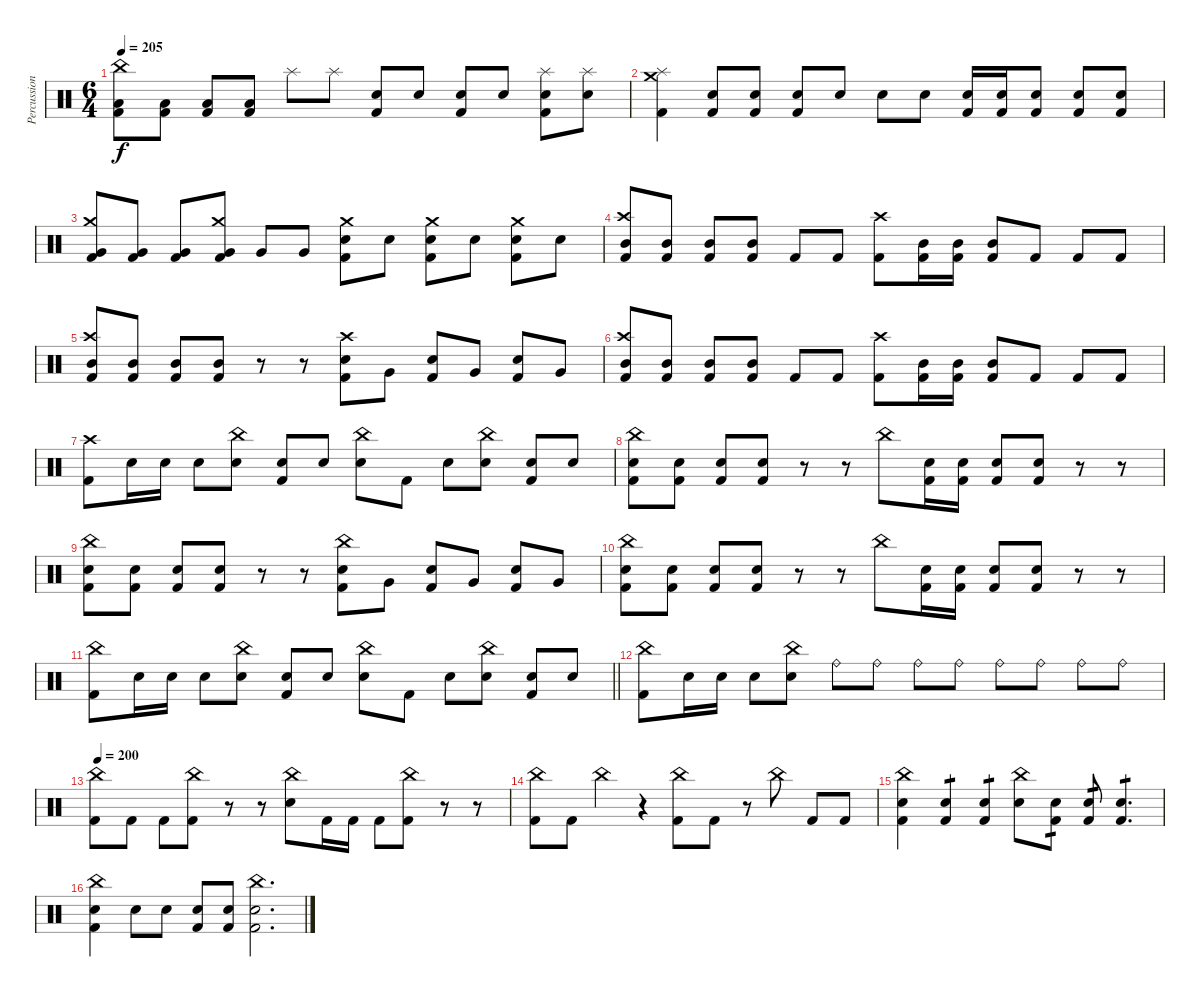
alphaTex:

\track ("Percussion" "Percussion") {instrument percussion}
\staff {score}
\articulation defaults
\ts (6 4)
\tempo 205
\clef neutral
\ks c
("China (hit)" "Low Floor Tom (hit)" "Kick (hit) 2").8{dy f} ("Low Floor Tom (hit)" "Kick (hit) 2").8 ("Low Floor Tom (hit)" "Kick (hit) 2").8 ("Low Floor Tom (hit)" "Kick (hit) 2").8 "Splash (hit)".8 "Splash (hit)".8 ("Electric Snare (hit)" "Kick (hit) 2").8 "Electric Snare (hit)".8 ("Electric Snare (hit)" "Kick (hit) 2").8 "Electric Snare (hit)".8 ("Splash (hit)" "Electric Snare (hit)" "Kick (hit) 2").8 ("Splash (hit)" "Electric Snare (hit)").8 |
("Crash medium (hit)" "Splash (hit)" "Kick (hit) 2").4 ("Electric Snare (hit)" "Kick (hit) 2").8 ("Electric Snare (hit)" "Kick (hit) 2").8 ("Electric Snare (hit)" "Kick (hit) 2").8 "Electric Snare (hit)".8 "Electric Snare (hit)".8 "Electric Snare (hit)".8 ("Electric Snare (hit)" "Kick (hit) 2").16 ("Electric Snare (hit)" "Kick (hit) 2").16 ("Electric Snare (hit)" "Kick (hit) 2").8 ("Electric Snare (hit)" "Kick (hit) 2").8 ("Electric Snare (hit)" "Kick (hit) 2").8 |
("Crash medium (hit)" "Very Low Tom (hit)" "Kick (hit) 2").8 ("Very Low Tom (hit)" "Kick (hit) 2").8 ("Very Low Tom (hit)" "Kick (hit) 2").8 ("Crash medium (hit)" "Very Low Tom (hit)" "Kick (hit) 2").8 "Very Low Tom (hit)".8 "Very Low Tom (hit)".8 ("Crash medium (hit)" "Electric Snare (hit)" "Kick (hit) 2").8 "Electric Snare (hit)".8 ("Crash medium (hit)" "Electric Snare (hit)" "Kick (hit) 2").8 "Electric Snare (hit)".8 ("Crash medium (hit)" "Electric Snare (hit)" "Kick (hit) 2").8 "Electric Snare (hit)".8 |
("Crash high (hit)" "Mid Tom (hit)" "Kick (hit) 2").8 ("Mid Tom (hit)" "Kick (hit) 2").8 ("Mid Tom (hit)" "Kick (hit) 2").8 ("Mid Tom (hit)" "Kick (hit) 2").8 "Kick (hit) 2".8 "Kick (hit) 2".8 ("Crash high (hit)" "Kick (hit) 2").8 ("Mid Tom (hit)" "Kick (hit) 2").16 ("Mid Tom (hit)" "Kick (hit) 2").16 ("Mid Tom (hit)" "Kick (hit) 2").8 "Kick (hit) 2".8 "Kick (hit) 2".8 "Kick (hit) 2".8 |
("Crash high (hit)" "Mid Tom (hit)" "Kick (hit) 2").8 ("Mid Tom (hit)" "Kick (hit) 2").8 ("Mid Tom (hit)" "Kick (hit) 2").8 ("Mid Tom (hit)" "Kick (hit) 2").8 r.8 r.8 ("Crash high (hit)" "Electric Snare (hit)" "Kick (hit) 2").8 "Very Low Tom (hit)".8 ("Electric Snare (hit)" "Kick (hit) 2").8 "Very Low Tom (hit)".8 ("Electric Snare (hit)" "Kick (hit) 2").8 "Very Low Tom (hit)".8 |
("Crash high (hit)" "Mid Tom (hit)" "Kick (hit) 2").8 ("Mid Tom (hit)" "Kick (hit) 2").8 ("Mid Tom (hit)" "Kick (hit) 2").8 ("Mid Tom (hit)" "Kick (hit) 2").8 "Kick (hit) 2".8 "Kick (hit) 2".8 ("Crash high (hit)" "Kick (hit) 2").8 ("Mid Tom (hit)" "Kick (hit) 2").16 ("Mid Tom (hit)" "Kick (hit) 2").16 ("Mid Tom (hit)" "Kick (hit) 2").8 "Kick (hit) 2".8 "Kick (hit) 2".8 "Kick (hit) 2".8 |
("Crash high (hit)" "Kick (hit) 2").8 "Electric Snare (hit)".16 "Electric Snare (hit)".16{volume 15} "Electric Snare (hit)".8 ("China (hit)" "Electric Snare (hit)").8 ("Electric Snare (hit)" "Kick (hit) 2").8 "Electric Snare (hit)".8 ("China (hit)" "Electric Snare (hit)").8 "Kick (hit) 2".8 "Electric Snare (hit)".8 ("China (hit)" "Electric Snare (hit)").8 ("Electric Snare (hit)" "Kick (hit) 2").8 "Electric Snare (hit)".8 |
("China (hit)" "Electric Snare (hit)" "Kick (hit) 2").8 ("Electric Snare (hit)" "Kick (hit) 2").8 ("Electric Snare (hit)" "Kick (hit) 2").8 ("Electric Snare (hit)" "Kick (hit) 2").8 r.8 r.8 "China (hit)".8 ("Electric Snare (hit)" "Kick (hit) 2").16 ("Electric Snare (hit)" "Kick (hit) 2").16 ("Electric Snare (hit)" "Kick (hit) 2").8 ("Electric Snare (hit)" "Kick (hit) 2").8 r.8 r.8 |
("China (hit)" "Electric Snare (hit)" "Kick (hit) 2").8 ("Electric Snare (hit)" "Kick (hit) 2").8 ("Electric Snare (hit)" "Kick (hit) 2").8 ("Electric Snare (hit)" "Kick (hit) 2").8 r.8 r.8 ("China (hit)" "Electric Snare (hit)" "Kick (hit) 2").8 "Very Low Tom (hit)".8 ("Electric Snare (hit)" "Kick (hit) 2").8 "Very Low Tom (hit)".8 ("Electric Snare (hit)" "Kick (hit) 2").8 "Very Low Tom (hit)".8 |
("China (hit)" "Electric Snare (hit)" "Kick (hit) 2").8 ("Electric Snare (hit)" "Kick (hit) 2").8 ("Electric Snare (hit)" "Kick (hit) 2").8 ("Electric Snare (hit)" "Kick (hit) 2").8 r.8 r.8 "China (hit)".8 ("Electric Snare (hit)" "Kick (hit) 2").16 ("Electric Snare (hit)" "Kick (hit) 2").16 ("Electric Snare (hit)" "Kick (hit) 2").8 ("Electric Snare (hit)" "Kick (hit) 2").8 r.8 r.8 |
\barLineRight lightlight
("China (hit)" "Kick (hit) 2").8 "Electric Snare (hit)".16 "Electric Snare (hit)".16 "Electric Snare (hit)".8 ("China (hit)" "Electric Snare (hit)").8 ("Electric Snare (hit)" "Kick (hit) 2").8 "Electric Snare (hit)".8 ("China (hit)" "Electric Snare (hit)").8 "Kick (hit) 2".8 "Electric Snare (hit)".8 ("China (hit)" "Electric Snare (hit)").8 ("Electric Snare (hit)" "Kick (hit) 2").8 "Electric Snare (hit)".8 |
("China (hit)" "Kick (hit) 2").8 "Electric Snare (hit)".16 "Electric Snare (hit)".16 "Electric Snare (hit)".8 ("China (hit)" "Electric Snare (hit)").8 "Ride (bell)".8 "Ride (bell)".8{volume 14} "Ride (bell)".8 "Ride (bell)".8 "Ride (bell)".8 "Ride (bell)".8 "Ride (bell)".8 "Ride (bell)".8 |
\tempo 200
("China (hit)" "Kick (hit) 2").8 "Kick (hit) 2".8 "Kick (hit) 2".8 ("China (hit)" "Kick (hit) 2").8 r.8 r.8 ("China (hit)" "Electric Snare (hit)").8 "Kick (hit) 2".16 "Kick (hit) 2".16 "Kick (hit) 2".8 ("China (hit)" "Kick (hit) 2").8 r.8 r.8 |
("China (hit)" "Kick (hit) 2").8 "Kick (hit) 2".8 "China (hit)".4 r.4 ("China (hit)" "Kick (hit) 2").8 "Kick (hit) 2".8 r.8 "China (hit)".8 "Kick (hit) 2".8 "Kick (hit) 2".8 |
("China (hit)" "Electric Snare (hit)" "Kick (hit) 2").4 ("Electric Snare (hit)" "Kick (hit) 2").4{tp 1} ("Electric Snare (hit)" "Kick (hit) 2").4{tp 1} ("China (hit)" "Electric Snare (hit)").8 ("Electric Snare (hit)" "Kick (hit) 2").8{tp 1} ("Electric Snare (hit)" "Kick (hit) 2").8{tp 1} ("Electric Snare (hit)" "Kick (hit) 2").4{d tp 1} |
("China (hit)" "Electric Snare (hit)" "Kick (hit) 2").4 "Electric Snare (hit)".8 "Electric Snare (hit)".8 ("Electric Snare (hit)" "Kick (hit) 2").8 ("Electric Snare (hit)" "Kick (hit) 2").8 ("China (hit)" "Electric Snare (hit)" "Kick (hit) 2").2{d}
